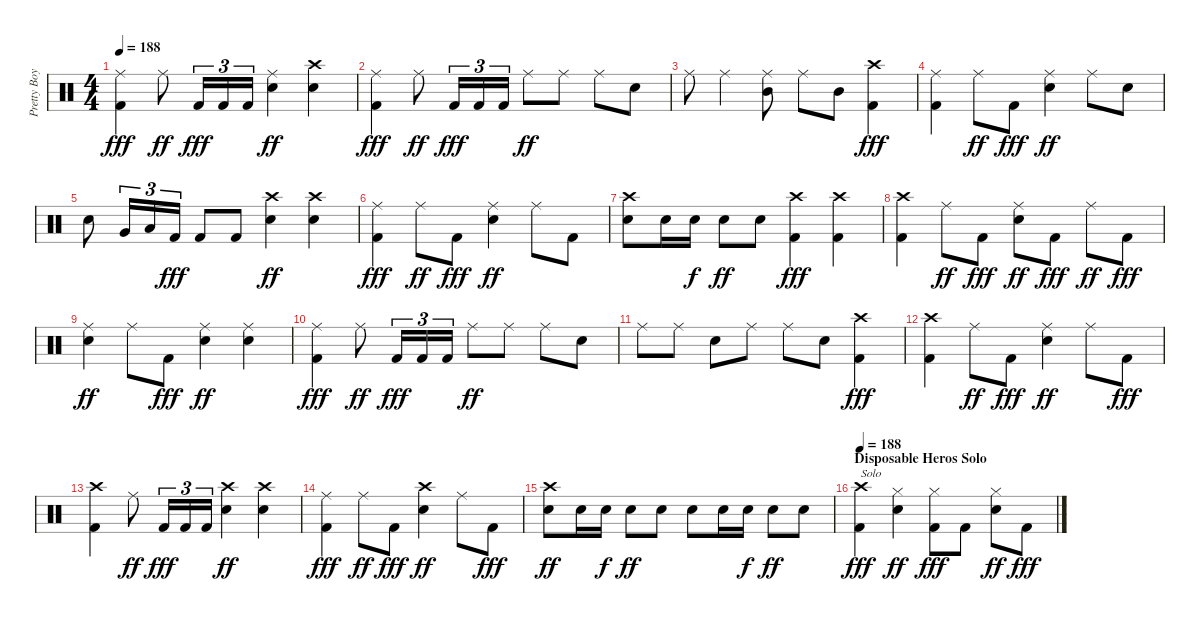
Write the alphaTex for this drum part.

\track ("Pretty Boy Geoff (Lars Drums)" "Pretty Boy") {instrument percussion}
\staff {score}
\articulation defaults
\ts (4 4)
\tempo 188
\clef neutral
\ks c
("Ride (middle)" "Kick (hit) 2").4{dy fff} "Ride (middle)".8{dy ff} "Kick (hit) 2".16{tu (3 2) dy fff} "Kick (hit) 2".16{tu (3 2)} "Kick (hit) 2".16{tu (3 2)} ("Ride (middle)" "Snare (hit) 2").4{dy ff} ("Crash high (hit)" "Snare (hit) 2").4 |
("Ride (middle)" "Kick (hit) 2").4{dy fff} "Ride (middle)".8{dy ff} "Kick (hit) 2".16{tu (3 2) dy fff} "Kick (hit) 2".16{tu (3 2)} "Kick (hit) 2".16{tu (3 2)} "Ride (middle)".8{dy ff} "Ride (middle)".8 "Ride (middle)".8 "Snare (hit) 2".8 |
"Ride (middle)".8 "Ride (middle)".4 ("Ride (middle)" "Mid Tom (hit)").8 "Ride (middle)".8 "Mid Tom (hit)".8 ("Crash high (hit)" "Kick (hit) 2").4{dy fff} |
("Ride (middle)" "Kick (hit) 2").4 "Ride (middle)".8{dy ff} "Kick (hit) 2".8{dy fff} ("Ride (middle)" "Snare (hit) 2").4{dy ff} "Ride (middle)".8 "Snare (hit) 2".8 |
"Snare (hit) 2".8 "Very Low Tom (hit)".16{tu (3 2)} "Low Tom (hit)".16{tu (3 2)} "Kick (hit) 2".16{tu (3 2) dy fff} "Kick (hit) 2".8 "Kick (hit) 2".8 ("Crash high (hit)" "Snare (hit) 2").4{dy ff} ("Crash high (hit)" "Snare (hit) 2").4 |
("Ride (middle)" "Kick (hit) 2").4{dy fff} "Ride (middle)".8{dy ff} "Kick (hit) 2".8{dy fff} ("Ride (middle)" "Snare (hit) 2").4{dy ff} "Ride (middle)".8 "Kick (hit) 2".8 |
("Crash high (hit)" "Snare (hit) 2").8 "Snare (hit) 2".16 "Snare (hit) 2".16{dy f} "Snare (hit) 2".8{dy ff} "Snare (hit) 2".8 ("Crash high (hit)" "Kick (hit) 2").4{dy fff} ("Crash high (hit)" "Kick (hit) 2").4 |
("Crash high (hit)" "Kick (hit) 2").4 "Ride (middle)".8{dy ff} "Kick (hit) 2".8{dy fff} ("Ride (middle)" "Snare (hit) 2").8{dy ff} "Kick (hit) 2".8{dy fff} "Ride (middle)".8{dy ff} "Kick (hit) 2".8{dy fff} |
("Ride (middle)" "Snare (hit) 2").4{dy ff} "Ride (middle)".8 "Kick (hit) 2".8{dy fff} ("Ride (middle)" "Snare (hit) 2").4{dy ff} ("Ride (middle)" "Snare (hit) 2").4 |
("Ride (middle)" "Kick (hit) 2").4{dy fff} "Ride (middle)".8{dy ff} "Kick (hit) 2".16{tu (3 2) dy fff} "Kick (hit) 2".16{tu (3 2)} "Kick (hit) 2".16{tu (3 2)} "Ride (middle)".8{dy ff} "Ride (middle)".8 "Ride (middle)".8 "Snare (hit) 2".8 |
"Ride (middle)".8 "Ride (middle)".8 "Snare (hit) 2".8 "Ride (middle)".8 "Ride (middle)".8 "Snare (hit) 2".8 ("Crash high (hit)" "Kick (hit) 2").4{dy fff} |
("Crash high (hit)" "Kick (hit) 2").4 "Ride (middle)".8{dy ff} "Kick (hit) 2".8{dy fff} ("Ride (middle)" "Snare (hit) 2").4{dy ff} "Ride (middle)".8 "Kick (hit) 2".8{dy fff} |
("Crash high (hit)" "Kick (hit) 2").4 "Ride (middle)".8{dy ff} "Kick (hit) 2".16{tu (3 2) dy fff} "Kick (hit) 2".16{tu (3 2)} "Kick (hit) 2".16{tu (3 2)} ("Crash high (hit)" "Snare (hit) 2").4{dy ff} ("Crash high (hit)" "Snare (hit) 2").4 |
("Ride (middle)" "Kick (hit) 2").4{dy fff} "Ride (middle)".8{dy ff} "Kick (hit) 2".8{dy fff} ("Crash high (hit)" "Snare (hit) 2").4{dy ff} "Ride (middle)".8 "Kick (hit) 2".8{dy fff} |
("Crash high (hit)" "Snare (hit) 2").8{dy ff} "Snare (hit) 2".16 "Snare (hit) 2".16{dy f} "Snare (hit) 2".8{dy ff} "Snare (hit) 2".8 "Snare (hit) 2".8 "Snare (hit) 2".16 "Snare (hit) 2".16{dy f} "Snare (hit) 2".8{dy ff} "Snare (hit) 2".8 |
\section ("" "Disposable Heros Solo")
\tempo 188
("Crash high (hit)" "Kick (hit) 2").4{txt "Solo" dy fff} ("Hi-Hat (closed)" "Snare (hit) 2").4{dy ff} ("Hi-Hat (closed)" "Kick (hit) 2").8{dy fff} "Kick (hit) 2".8 ("Hi-Hat (closed)" "Snare (hit) 2").8{dy ff} "Kick (hit) 2".8{dy fff}
